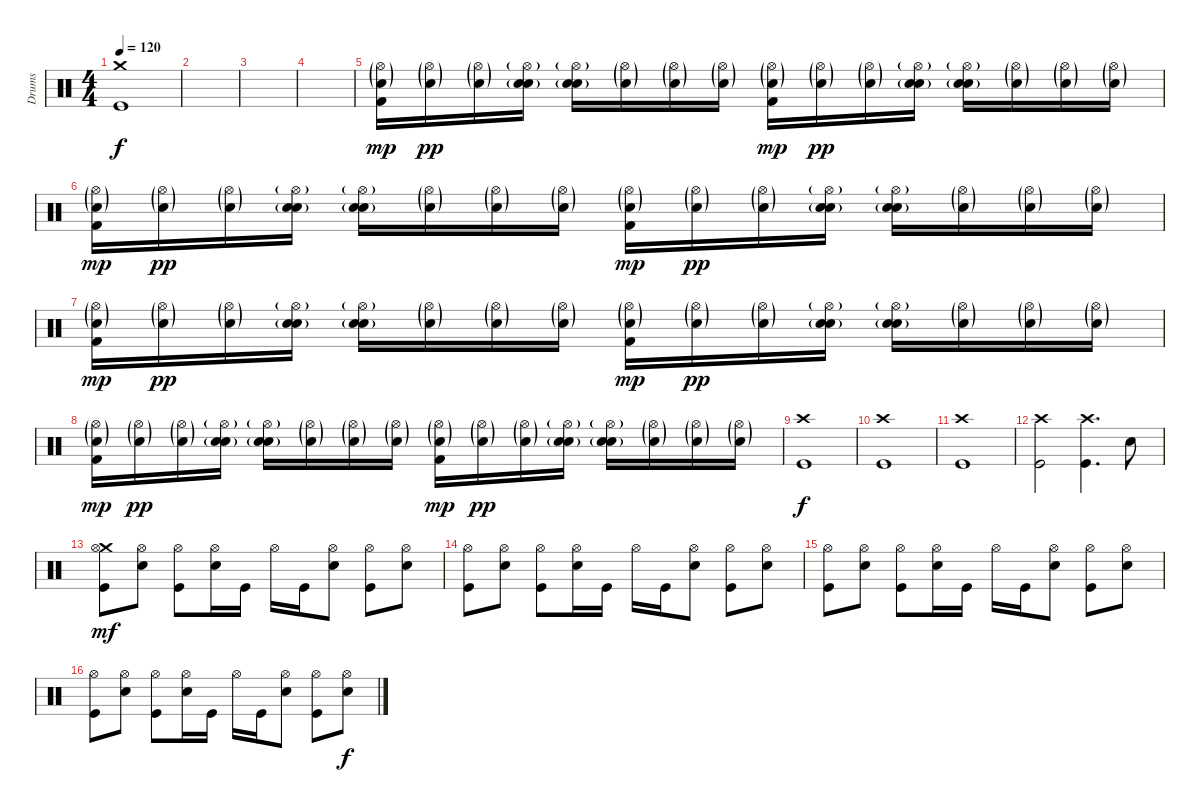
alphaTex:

\track ("Drums" "Drums") {instrument percussion}
\staff {score}
\articulation defaults
\ts (4 4)
\tempo 120
\clef neutral
\ks c
("Crash medium (hit)" "Kick (hit)").1{dy f} |
|
|
|
("Snare (hit) 2"{g} "Hi-Hat (open)"{g} "Kick (hit) 2").16{dy mp} ("Snare (hit) 2"{g} "Hi-Hat (open)"{g}).16{dy pp} ("Snare (hit) 2"{g} "Hi-Hat (open)"{g}).16 ("Electric Snare (hit)" "Snare (hit) 2"{g} "Hi-Hat (open)"{g}).16 ("Electric Snare (hit)" "Snare (hit) 2"{g} "Hi-Hat (open)"{g}).16 ("Snare (hit) 2"{g} "Hi-Hat (open)"{g}).16 ("Snare (hit) 2"{g} "Hi-Hat (open)"{g}).16 ("Snare (hit) 2"{g} "Hi-Hat (open)"{g}).16 ("Snare (hit) 2"{g} "Hi-Hat (open)"{g} "Kick (hit) 2").16{dy mp} ("Snare (hit) 2"{g} "Hi-Hat (open)"{g}).16{dy pp} ("Snare (hit) 2"{g} "Hi-Hat (open)"{g}).16 ("Electric Snare (hit)" "Snare (hit) 2"{g} "Hi-Hat (open)"{g}).16 ("Electric Snare (hit)" "Snare (hit) 2"{g} "Hi-Hat (open)"{g}).16 ("Snare (hit) 2"{g} "Hi-Hat (open)"{g}).16 ("Snare (hit) 2"{g} "Hi-Hat (open)"{g}).16 ("Snare (hit) 2"{g} "Hi-Hat (open)"{g}).16 |
("Snare (hit) 2"{g} "Hi-Hat (open)"{g} "Kick (hit) 2").16{dy mp} ("Snare (hit) 2"{g} "Hi-Hat (open)"{g}).16{dy pp} ("Snare (hit) 2"{g} "Hi-Hat (open)"{g}).16 ("Electric Snare (hit)" "Snare (hit) 2"{g} "Hi-Hat (open)"{g}).16 ("Electric Snare (hit)" "Snare (hit) 2"{g} "Hi-Hat (open)"{g}).16 ("Snare (hit) 2"{g} "Hi-Hat (open)"{g}).16 ("Snare (hit) 2"{g} "Hi-Hat (open)"{g}).16 ("Snare (hit) 2"{g} "Hi-Hat (open)"{g}).16 ("Snare (hit) 2"{g} "Hi-Hat (open)"{g} "Kick (hit) 2").16{dy mp} ("Snare (hit) 2"{g} "Hi-Hat (open)"{g}).16{dy pp} ("Snare (hit) 2"{g} "Hi-Hat (open)"{g}).16 ("Electric Snare (hit)" "Snare (hit) 2"{g} "Hi-Hat (open)"{g}).16 ("Electric Snare (hit)" "Snare (hit) 2"{g} "Hi-Hat (open)"{g}).16 ("Snare (hit) 2"{g} "Hi-Hat (open)"{g}).16 ("Snare (hit) 2"{g} "Hi-Hat (open)"{g}).16 ("Snare (hit) 2"{g} "Hi-Hat (open)"{g}).16 |
("Snare (hit) 2"{g} "Hi-Hat (open)"{g} "Kick (hit) 2").16{dy mp} ("Snare (hit) 2"{g} "Hi-Hat (open)"{g}).16{dy pp} ("Snare (hit) 2"{g} "Hi-Hat (open)"{g}).16 ("Electric Snare (hit)" "Snare (hit) 2"{g} "Hi-Hat (open)"{g}).16 ("Electric Snare (hit)" "Snare (hit) 2"{g} "Hi-Hat (open)"{g}).16 ("Snare (hit) 2"{g} "Hi-Hat (open)"{g}).16 ("Snare (hit) 2"{g} "Hi-Hat (open)"{g}).16 ("Snare (hit) 2"{g} "Hi-Hat (open)"{g}).16 ("Snare (hit) 2"{g} "Hi-Hat (open)"{g} "Kick (hit) 2").16{dy mp} ("Snare (hit) 2"{g} "Hi-Hat (open)"{g}).16{dy pp} ("Snare (hit) 2"{g} "Hi-Hat (open)"{g}).16 ("Electric Snare (hit)" "Snare (hit) 2"{g} "Hi-Hat (open)"{g}).16 ("Electric Snare (hit)" "Snare (hit) 2"{g} "Hi-Hat (open)"{g}).16 ("Snare (hit) 2"{g} "Hi-Hat (open)"{g}).16 ("Snare (hit) 2"{g} "Hi-Hat (open)"{g}).16 ("Snare (hit) 2"{g} "Hi-Hat (open)"{g}).16 |
("Snare (hit) 2"{g} "Hi-Hat (open)"{g} "Kick (hit) 2").16{dy mp} ("Snare (hit) 2"{g} "Hi-Hat (open)"{g}).16{dy pp} ("Snare (hit) 2"{g} "Hi-Hat (open)"{g}).16 ("Electric Snare (hit)" "Snare (hit) 2"{g} "Hi-Hat (open)"{g}).16 ("Electric Snare (hit)" "Snare (hit) 2"{g} "Hi-Hat (open)"{g}).16 ("Snare (hit) 2"{g} "Hi-Hat (open)"{g}).16 ("Snare (hit) 2"{g} "Hi-Hat (open)"{g}).16 ("Snare (hit) 2"{g} "Hi-Hat (open)"{g}).16 ("Snare (hit) 2"{g} "Hi-Hat (open)"{g} "Kick (hit) 2").16{dy mp} ("Snare (hit) 2"{g} "Hi-Hat (open)"{g}).16{dy pp} ("Snare (hit) 2"{g} "Hi-Hat (open)"{g}).16 ("Electric Snare (hit)" "Snare (hit) 2"{g} "Hi-Hat (open)"{g}).16 ("Electric Snare (hit)" "Snare (hit) 2"{g} "Hi-Hat (open)"{g}).16 ("Snare (hit) 2"{g} "Hi-Hat (open)"{g}).16 ("Snare (hit) 2"{g} "Hi-Hat (open)"{g}).16 ("Snare (hit) 2"{g} "Hi-Hat (open)"{g}).16 |
("Kick (hit)" "Crash high (hit)").1{dy f} |
("Kick (hit)" "Crash high (hit)").1 |
("Kick (hit)" "Crash high (hit)").1 |
("Kick (hit)" "Crash high (hit)").2 ("Kick (hit)" "Crash high (hit)").4{d} "Electric Snare (hit)".8 |
("Kick (hit)" "Crash medium (hit)" "Hi-Hat (open)").8{dy mf} ("Electric Snare (hit)" "Hi-Hat (open)").8 ("Kick (hit)" "Hi-Hat (open)").8 ("Electric Snare (hit)" "Hi-Hat (open)").16 "Kick (hit)".16 "Hi-Hat (open)".16 "Kick (hit)".16 ("Electric Snare (hit)" "Hi-Hat (open)").8 ("Kick (hit)" "Hi-Hat (open)").8 ("Electric Snare (hit)" "Hi-Hat (open)").8 |
("Kick (hit)" "Hi-Hat (open)").8 ("Electric Snare (hit)" "Hi-Hat (open)").8 ("Kick (hit)" "Hi-Hat (open)").8 ("Electric Snare (hit)" "Hi-Hat (open)").16 "Kick (hit)".16 "Hi-Hat (open)".16 "Kick (hit)".16 ("Electric Snare (hit)" "Hi-Hat (open)").8 ("Kick (hit)" "Hi-Hat (open)").8 ("Electric Snare (hit)" "Hi-Hat (open)").8 |
("Kick (hit)" "Hi-Hat (open)").8 ("Electric Snare (hit)" "Hi-Hat (open)").8 ("Kick (hit)" "Hi-Hat (open)").8 ("Electric Snare (hit)" "Hi-Hat (open)").16 "Kick (hit)".16 "Hi-Hat (open)".16 "Kick (hit)".16 ("Electric Snare (hit)" "Hi-Hat (open)").8 ("Kick (hit)" "Hi-Hat (open)").8 ("Electric Snare (hit)" "Hi-Hat (open)").8 |
("Kick (hit)" "Hi-Hat (open)").8 ("Electric Snare (hit)" "Hi-Hat (open)").8 ("Kick (hit)" "Hi-Hat (open)").8 ("Electric Snare (hit)" "Hi-Hat (open)").16 "Kick (hit)".16 "Hi-Hat (open)".16 "Kick (hit)".16 ("Electric Snare (hit)" "Hi-Hat (open)").8 ("Kick (hit)" "Hi-Hat (open)").8 ("Electric Snare (hit)" "Hi-Hat (open)").8{dy f}
